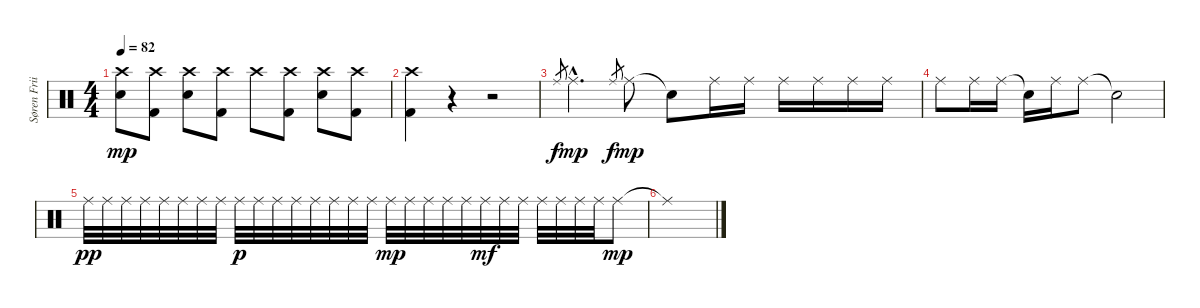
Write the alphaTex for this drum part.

\track ("Søren Friis" "Søren Frii") {instrument percussion}
\staff {score}
\articulation defaults
\ts (4 4)
\tempo 82
\clef neutral
\ks c
("Crash high (hit)" "Snare (hit) 2").8{dy mp} ("Crash high (hit)" "Kick (hit) 2").8 ("Crash high (hit)" "Snare (hit) 2").8 ("Crash high (hit)" "Kick (hit) 2").8 "Crash high (hit)".8 ("Crash high (hit)" "Kick (hit) 2").8 ("Crash high (hit)" "Snare (hit) 2").8 ("Crash high (hit)" "Kick (hit) 2").8 |
("Crash high (hit)" "Kick (hit) 2").4 r.4 r.2 |
"Ride (middle)".8{gr dy f} "Ride (middle)"{hac}.4{d dy mp} "Ride (middle)".8{gr dy f} "Ride (middle)".8{dy mp} "Snare (hit)"{t}.8 "Ride (middle)".16 "Ride (middle)".16 "Ride (middle)".16 "Ride (middle)".16 "Ride (middle)".16 "Ride (middle)".16 |
"Ride (middle)".8 "Ride (middle)".16 "Ride (middle)".16 "Snare (hit)"{t}.16 "Ride (middle)".16 "Ride (middle)".8 "Snare (hit)"{t}.2 |
"Ride (middle)".32{dy pp} "Ride (middle)".32 "Ride (middle)".32 "Ride (middle)".32 "Ride (middle)".32 "Ride (middle)".32 "Ride (middle)".32 "Ride (middle)".32 "Ride (middle)".32{dy p} "Ride (middle)".32 "Ride (middle)".32 "Ride (middle)".32 "Ride (middle)".32 "Ride (middle)".32 "Ride (middle)".32 "Ride (middle)".32 "Ride (middle)".32{dy mp} "Ride (middle)".32 "Ride (middle)".32 "Ride (middle)".32 "Ride (middle)".32 "Ride (middle)".32{dy mf} "Ride (middle)".32 "Ride (middle)".32 "Ride (middle)".32 "Ride (middle)".32 "Ride (middle)".32 "Ride (middle)".32 "Ride (middle)".8{dy mp} |
"Ride (middle)"{t}.1
